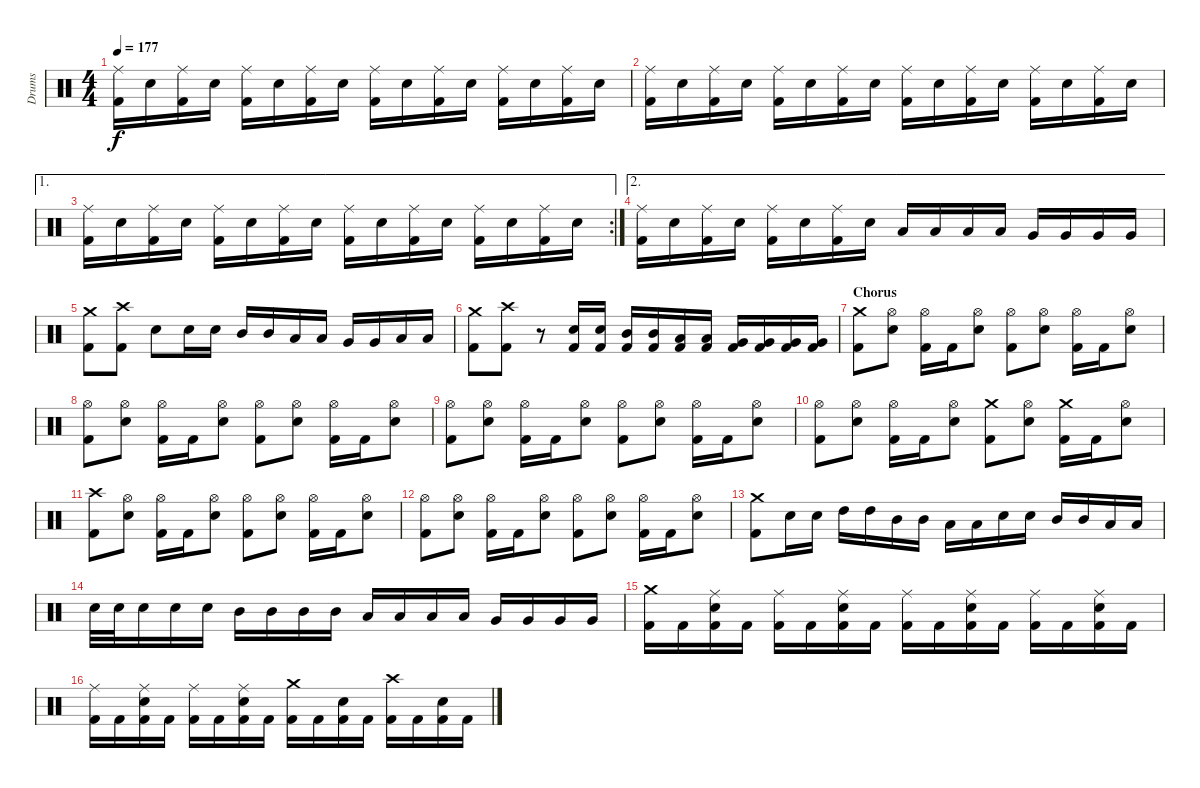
\track ("Drums" "Drums") {instrument percussion}
\staff {score}
\articulation defaults
\ts (4 4)
\tempo 177
\clef neutral
\ks c
("Kick (hit) 2" "Ride (middle)").16{dy f} "Electric Snare (hit)".16 ("Kick (hit) 2" "Ride (middle)").16 "Electric Snare (hit)".16 ("Kick (hit) 2" "Ride (middle)").16 "Electric Snare (hit)".16 ("Kick (hit) 2" "Ride (middle)").16 "Electric Snare (hit)".16 ("Kick (hit) 2" "Ride (middle)").16 "Electric Snare (hit)".16 ("Kick (hit) 2" "Ride (middle)").16 "Electric Snare (hit)".16 ("Kick (hit) 2" "Ride (middle)").16 "Electric Snare (hit)".16 ("Kick (hit) 2" "Ride (middle)").16 "Electric Snare (hit)".16 |
("Kick (hit) 2" "Ride (middle)").16 "Electric Snare (hit)".16 ("Kick (hit) 2" "Ride (middle)").16 "Electric Snare (hit)".16 ("Kick (hit) 2" "Ride (middle)").16 "Electric Snare (hit)".16 ("Kick (hit) 2" "Ride (middle)").16 "Electric Snare (hit)".16 ("Kick (hit) 2" "Ride (middle)").16 "Electric Snare (hit)".16 ("Kick (hit) 2" "Ride (middle)").16 "Electric Snare (hit)".16 ("Kick (hit) 2" "Ride (middle)").16 "Electric Snare (hit)".16 ("Kick (hit) 2" "Ride (middle)").16 "Electric Snare (hit)".16 |
\ae 1
\rc 2
("Kick (hit) 2" "Ride (middle)").16 "Electric Snare (hit)".16 ("Kick (hit) 2" "Ride (middle)").16 "Electric Snare (hit)".16 ("Kick (hit) 2" "Ride (middle)").16 "Electric Snare (hit)".16 ("Kick (hit) 2" "Ride (middle)").16 "Electric Snare (hit)".16 ("Kick (hit) 2" "Ride (middle)").16 "Electric Snare (hit)".16 ("Kick (hit) 2" "Ride (middle)").16 "Electric Snare (hit)".16 ("Kick (hit) 2" "Ride (middle)").16 "Electric Snare (hit)".16 ("Kick (hit) 2" "Ride (middle)").16 "Electric Snare (hit)".16 |
\ae 2
("Kick (hit) 2" "Ride (middle)").16 "Electric Snare (hit)".16 ("Kick (hit) 2" "Ride (middle)").16 "Electric Snare (hit)".16 ("Kick (hit) 2" "Ride (middle)").16 "Electric Snare (hit)".16 ("Kick (hit) 2" "Ride (middle)").16 "Electric Snare (hit)".16 "Low Tom (hit)".16 "Low Tom (hit)".16 "Low Tom (hit)".16 "Low Tom (hit)".16 "Very Low Tom (hit)".16 "Very Low Tom (hit)".16 "Very Low Tom (hit)".16 "Very Low Tom (hit)".16 |
("Kick (hit) 2" "Crash medium (hit)").8 ("Kick (hit) 2" "Crash high (hit)").8 "Electric Snare (hit)".8 "Electric Snare (hit)".16 "Electric Snare (hit)".16 "Mid Tom (hit)".16 "Mid Tom (hit)".16 "Low Tom (hit)".16 "Low Tom (hit)".16 "Very Low Tom (hit)".16 "Very Low Tom (hit)".16 "Low Floor Tom (hit)".16 "Low Floor Tom (hit)".16 |
("Kick (hit) 2" "Crash medium (hit)").8 ("Kick (hit) 2" "Crash high (hit)").8 r.8 ("Kick (hit) 2" "Electric Snare (hit)").16 ("Kick (hit) 2" "Electric Snare (hit)").16 ("Kick (hit) 2" "Mid Tom (hit)").16 ("Kick (hit) 2" "Mid Tom (hit)").16 ("Kick (hit) 2" "Low Tom (hit)").16 ("Kick (hit) 2" "Low Tom (hit)").16 ("Kick (hit) 2" "Very Low Tom (hit)").16 ("Kick (hit) 2" "Very Low Tom (hit)").16 ("Kick (hit) 2" "Very Low Tom (hit)").16 ("Kick (hit) 2" "Very Low Tom (hit)").16 |
\section ("" "Chorus")
("Kick (hit) 2" "Crash medium (hit)").8 ("Electric Snare (hit)" "Hi-Hat (open)").8 ("Kick (hit) 2" "Hi-Hat (open)").16 "Kick (hit) 2".16 ("Electric Snare (hit)" "Hi-Hat (open)").8 ("Kick (hit) 2" "Hi-Hat (open)").8 ("Electric Snare (hit)" "Hi-Hat (open)").8 ("Kick (hit) 2" "Hi-Hat (open)").16 "Kick (hit) 2".16 ("Electric Snare (hit)" "Hi-Hat (open)").8 |
("Kick (hit) 2" "Hi-Hat (open)").8 ("Electric Snare (hit)" "Hi-Hat (open)").8 ("Kick (hit) 2" "Hi-Hat (open)").16 "Kick (hit) 2".16 ("Electric Snare (hit)" "Hi-Hat (open)").8 ("Kick (hit) 2" "Hi-Hat (open)").8 ("Electric Snare (hit)" "Hi-Hat (open)").8 ("Kick (hit) 2" "Hi-Hat (open)").16 "Kick (hit) 2".16 ("Electric Snare (hit)" "Hi-Hat (open)").8 |
("Kick (hit) 2" "Hi-Hat (open)").8 ("Electric Snare (hit)" "Hi-Hat (open)").8 ("Kick (hit) 2" "Hi-Hat (open)").16 "Kick (hit) 2".16 ("Electric Snare (hit)" "Hi-Hat (open)").8 ("Kick (hit) 2" "Hi-Hat (open)").8 ("Electric Snare (hit)" "Hi-Hat (open)").8 ("Kick (hit) 2" "Hi-Hat (open)").16 "Kick (hit) 2".16 ("Electric Snare (hit)" "Hi-Hat (open)").8 |
("Kick (hit) 2" "Hi-Hat (open)").8 ("Electric Snare (hit)" "Hi-Hat (open)").8 ("Kick (hit) 2" "Hi-Hat (open)").16 "Kick (hit) 2".16 ("Electric Snare (hit)" "Hi-Hat (open)").8 ("Kick (hit) 2" "Crash medium (hit)").8 ("Electric Snare (hit)" "Hi-Hat (open)").8 ("Kick (hit) 2" "Crash medium (hit)").16 "Kick (hit) 2".16 ("Electric Snare (hit)" "Hi-Hat (open)").8 |
("Kick (hit) 2" "Crash high (hit)").8 ("Electric Snare (hit)" "Hi-Hat (open)").8 ("Kick (hit) 2" "Hi-Hat (open)").16 "Kick (hit) 2".16 ("Electric Snare (hit)" "Hi-Hat (open)").8 ("Kick (hit) 2" "Hi-Hat (open)").8 ("Electric Snare (hit)" "Hi-Hat (open)").8 ("Kick (hit) 2" "Hi-Hat (open)").16 "Kick (hit) 2".16 ("Electric Snare (hit)" "Hi-Hat (open)").8 |
("Kick (hit) 2" "Hi-Hat (open)").8 ("Electric Snare (hit)" "Hi-Hat (open)").8 ("Kick (hit) 2" "Hi-Hat (open)").16 "Kick (hit) 2".16 ("Electric Snare (hit)" "Hi-Hat (open)").8 ("Kick (hit) 2" "Hi-Hat (open)").8 ("Electric Snare (hit)" "Hi-Hat (open)").8 ("Kick (hit) 2" "Hi-Hat (open)").16 "Kick (hit) 2".16 ("Electric Snare (hit)" "Hi-Hat (open)").8 |
("Kick (hit) 2" "Crash medium (hit)").8 "Electric Snare (hit)".16 "Electric Snare (hit)".16 "High Tom (hit)".16 "High Tom (hit)".16 "Mid Tom (hit)".16 "Mid Tom (hit)".16 "Low Tom (hit)".16 "Low Tom (hit)".16 "Electric Snare (hit)".16 "Electric Snare (hit)".16 "Mid Tom (hit)".16 "Mid Tom (hit)".16 "Low Tom (hit)".16 "Low Tom (hit)".16 |
"Electric Snare (hit)".32 "Electric Snare (hit)".32 "Electric Snare (hit)".16 "Electric Snare (hit)".16 "Electric Snare (hit)".16 "Mid Tom (hit)".16 "Mid Tom (hit)".16 "Mid Tom (hit)".16 "Mid Tom (hit)".16 "Low Tom (hit)".16 "Low Tom (hit)".16 "Low Tom (hit)".16 "Low Tom (hit)".16 "Very Low Tom (hit)".16 "Very Low Tom (hit)".16 "Very Low Tom (hit)".16 "Very Low Tom (hit)".16 |
("Kick (hit) 2" "Crash medium (hit)").16 "Kick (hit) 2".16 ("Kick (hit) 2" "Electric Snare (hit)" "Ride (middle)").16 "Kick (hit) 2".16 ("Kick (hit) 2" "Ride (middle)").16 "Kick (hit) 2".16 ("Kick (hit) 2" "Electric Snare (hit)" "Ride (middle)").16 "Kick (hit) 2".16 ("Kick (hit) 2" "Ride (middle)").16 "Kick (hit) 2".16 ("Kick (hit) 2" "Electric Snare (hit)" "Ride (middle)").16 "Kick (hit) 2".16 ("Kick (hit) 2" "Ride (middle)").16 "Kick (hit) 2".16 ("Kick (hit) 2" "Electric Snare (hit)" "Ride (middle)").16 "Kick (hit) 2".16 |
("Kick (hit) 2" "Ride (middle)").16 "Kick (hit) 2".16 ("Kick (hit) 2" "Electric Snare (hit)" "Ride (middle)").16 "Kick (hit) 2".16 ("Kick (hit) 2" "Ride (middle)").16 "Kick (hit) 2".16 ("Kick (hit) 2" "Electric Snare (hit)" "Ride (middle)").16 "Kick (hit) 2".16 ("Kick (hit) 2" "Crash medium (hit)").16 "Kick (hit) 2".16 ("Kick (hit) 2" "Electric Snare (hit)").16 "Kick (hit) 2".16 ("Kick (hit) 2" "Crash high (hit)").16 "Kick (hit) 2".16 ("Kick (hit) 2" "Electric Snare (hit)").16 "Kick (hit) 2".16
